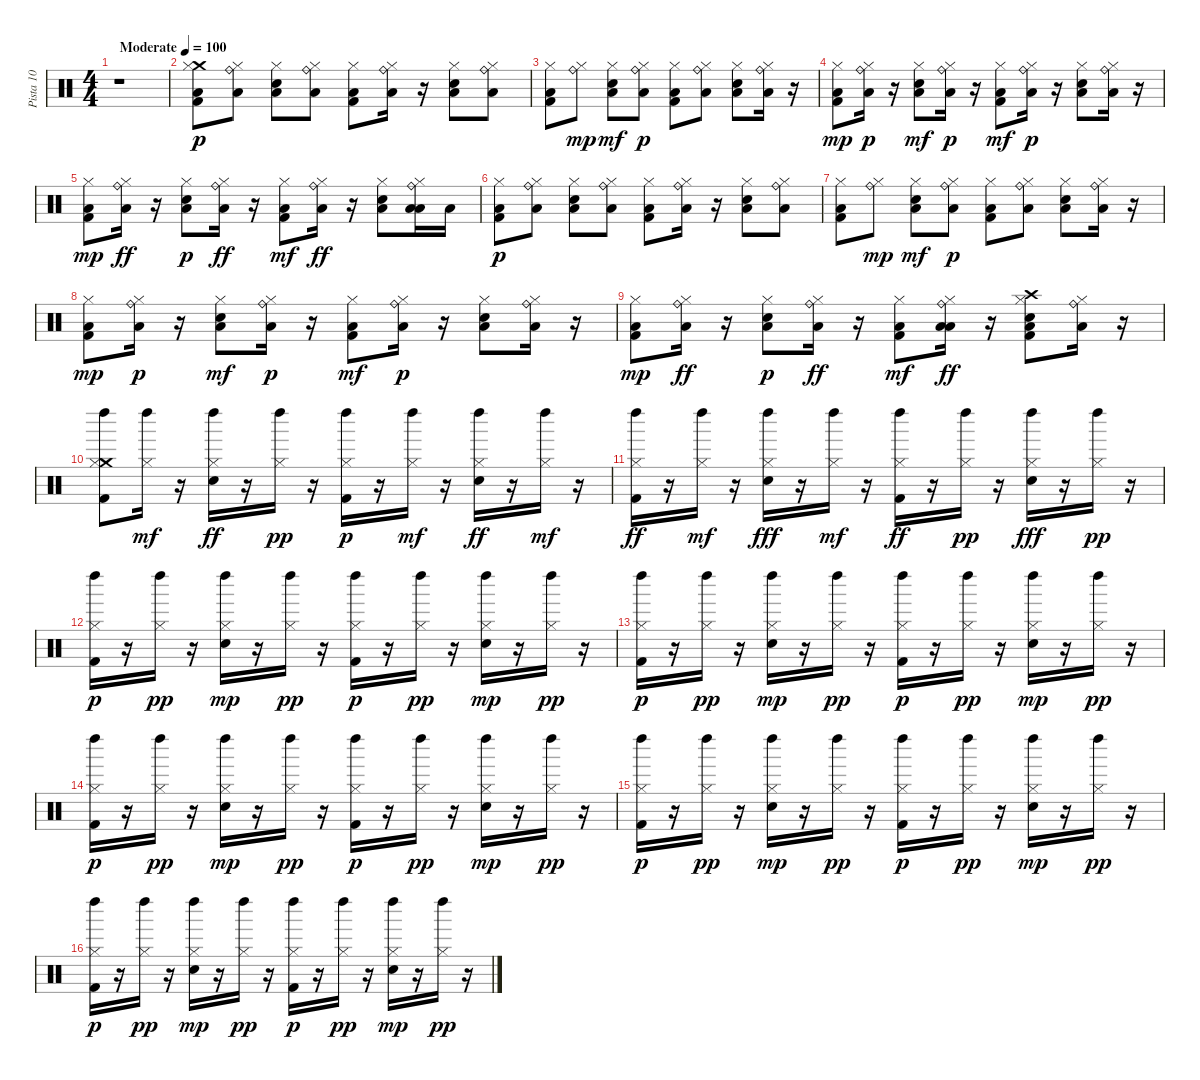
\track ("Pista 10" "Pista 10") {instrument percussion}
\staff {score}
\articulation defaults
\ts (4 4)
\tempo (100 "Moderate")
\clef neutral
\ks c
r.1{dy p} |
("Crash medium (hit)" "Hi-Hat (closed)" "Kick (hit) 2" "Low Floor Tom (hit)").8 ("Ride (bell)" "Low Floor Tom (hit)" "Hi-Hat (closed)").8 ("Hi-Hat (closed)" "Snare (hit) 2" "Low Floor Tom (hit)").8 ("Ride (bell)" "Low Floor Tom (hit)" "Hi-Hat (closed)").8 ("Hi-Hat (closed)" "Kick (hit) 2" "Low Floor Tom (hit)").8 ("Ride (bell)" "Low Floor Tom (hit)" "Hi-Hat (closed)").16 r.16 ("Hi-Hat (closed)" "Snare (hit) 2" "Low Floor Tom (hit)").8 ("Ride (bell)" "Low Floor Tom (hit)" "Hi-Hat (closed)").8 |
("Hi-Hat (closed)" "Kick (hit) 2" "Low Floor Tom (hit)").8 ("Ride (bell)" "Hi-Hat (closed)").8{dy mp} ("Hi-Hat (closed)" "Snare (hit) 2" "Low Floor Tom (hit)").8{dy mf} ("Ride (bell)" "Low Floor Tom (hit)" "Hi-Hat (closed)").8{dy p} ("Hi-Hat (closed)" "Kick (hit) 2" "Low Floor Tom (hit)").8 ("Ride (bell)" "Low Floor Tom (hit)" "Hi-Hat (closed)").8 ("Hi-Hat (closed)" "Snare (hit) 2" "Low Floor Tom (hit)").8 ("Ride (bell)" "Low Floor Tom (hit)" "Hi-Hat (closed)").16 r.16 |
("Hi-Hat (closed)" "Kick (hit) 2" "Low Floor Tom (hit)").8{dy mp} ("Ride (bell)" "Low Floor Tom (hit)" "Hi-Hat (closed)").16{dy p} r.16 ("Hi-Hat (closed)" "Snare (hit) 2" "Low Floor Tom (hit)").8{dy mf} ("Ride (bell)" "Low Floor Tom (hit)" "Hi-Hat (closed)").16{dy p} r.16 ("Hi-Hat (closed)" "Kick (hit) 2" "Low Floor Tom (hit)").8{dy mf} ("Ride (bell)" "Low Floor Tom (hit)" "Hi-Hat (closed)").16{dy p} r.16 ("Hi-Hat (closed)" "Snare (hit) 2" "Low Floor Tom (hit)").8 ("Ride (bell)" "Low Floor Tom (hit)" "Hi-Hat (closed)").16 r.16 |
("Hi-Hat (closed)" "Kick (hit) 2" "Low Floor Tom (hit)").8{dy mp} ("Ride (bell)" "Low Floor Tom (hit)" "Hi-Hat (closed)").16{dy ff} r.16 ("Hi-Hat (closed)" "Snare (hit) 2" "Low Floor Tom (hit)").8{dy p} ("Ride (bell)" "Low Floor Tom (hit)" "Hi-Hat (closed)").16{dy ff} r.16 ("Hi-Hat (closed)" "Kick (hit) 2" "Low Floor Tom (hit)").8{dy mf} ("Ride (bell)" "Low Floor Tom (hit)" "Hi-Hat (closed)").16{dy ff} r.16 ("Hi-Hat (closed)" "Snare (hit) 2" "Low Floor Tom (hit)").8 ("Low Tom (hit)" "Ride (bell)" "Low Floor Tom (hit)" "Hi-Hat (closed)").16 "Low Tom (hit)".16 |
("Hi-Hat (closed)" "Kick (hit) 2" "Low Floor Tom (hit)").8{dy p} ("Ride (bell)" "Low Floor Tom (hit)" "Hi-Hat (closed)").8 ("Hi-Hat (closed)" "Snare (hit) 2" "Low Floor Tom (hit)").8 ("Ride (bell)" "Low Floor Tom (hit)" "Hi-Hat (closed)").8 ("Hi-Hat (closed)" "Kick (hit) 2" "Low Floor Tom (hit)").8 ("Ride (bell)" "Low Floor Tom (hit)" "Hi-Hat (closed)").16 r.16 ("Hi-Hat (closed)" "Snare (hit) 2" "Low Floor Tom (hit)").8 ("Ride (bell)" "Low Floor Tom (hit)" "Hi-Hat (closed)").8 |
("Hi-Hat (closed)" "Kick (hit) 2" "Low Floor Tom (hit)").8 ("Ride (bell)" "Hi-Hat (closed)").8{dy mp} ("Hi-Hat (closed)" "Snare (hit) 2" "Low Floor Tom (hit)").8{dy mf} ("Ride (bell)" "Low Floor Tom (hit)" "Hi-Hat (closed)").8{dy p} ("Hi-Hat (closed)" "Kick (hit) 2" "Low Floor Tom (hit)").8 ("Ride (bell)" "Low Floor Tom (hit)" "Hi-Hat (closed)").8 ("Hi-Hat (closed)" "Snare (hit) 2" "Low Floor Tom (hit)").8 ("Ride (bell)" "Low Floor Tom (hit)" "Hi-Hat (closed)").16 r.16 |
("Hi-Hat (closed)" "Kick (hit) 2" "Low Floor Tom (hit)").8{dy mp} ("Ride (bell)" "Low Floor Tom (hit)" "Hi-Hat (closed)").16{dy p} r.16 ("Hi-Hat (closed)" "Snare (hit) 2" "Low Floor Tom (hit)").8{dy mf} ("Ride (bell)" "Low Floor Tom (hit)" "Hi-Hat (closed)").16{dy p} r.16 ("Hi-Hat (closed)" "Kick (hit) 2" "Low Floor Tom (hit)").8{dy mf} ("Ride (bell)" "Low Floor Tom (hit)" "Hi-Hat (closed)").16{dy p} r.16 ("Hi-Hat (closed)" "Snare (hit) 2" "Low Floor Tom (hit)").8 ("Ride (bell)" "Low Floor Tom (hit)" "Hi-Hat (closed)").16 r.16 |
("Hi-Hat (closed)" "Kick (hit) 2" "Low Floor Tom (hit)").8{dy mp} ("Ride (bell)" "Low Floor Tom (hit)" "Hi-Hat (closed)").16{dy ff} r.16 ("Hi-Hat (closed)" "Snare (hit) 2" "Low Floor Tom (hit)").8{dy p} ("Ride (bell)" "Low Floor Tom (hit)" "Hi-Hat (closed)").16{dy ff} r.16 ("Hi-Hat (closed)" "Kick (hit) 2" "Low Floor Tom (hit)").8{dy mf} ("Low Tom (hit)" "Ride (bell)" "Low Floor Tom (hit)" "Hi-Hat (closed)").16{dy ff} r.16 ("Kick (hit) 2" "Crash high (hit)" "Hi-Hat (closed)" "Snare (hit) 2" "Low Floor Tom (hit)").8 ("Ride (bell)" "Low Floor Tom (hit)" "Hi-Hat (closed)").16 r.16 |
("Crash medium (hit)" "Kick (hit) 2" "Left Maraca (hit)" "Hi-Hat (closed)").8 ("Left Maraca (hit)" "Hi-Hat (closed)").16{dy mf} r.16 ("Snare (hit) 2" "Left Maraca (hit)" "Hi-Hat (closed)").16{dy ff} r.16 ("Left Maraca (hit)" "Hi-Hat (closed)").16{dy pp} r.16 ("Kick (hit) 2" "Left Maraca (hit)" "Hi-Hat (closed)").16{dy p} r.16 ("Left Maraca (hit)" "Hi-Hat (closed)").16{dy mf} r.16 ("Snare (hit) 2" "Left Maraca (hit)" "Hi-Hat (closed)").16{dy ff} r.16 ("Left Maraca (hit)" "Hi-Hat (closed)").16{dy mf} r.16 |
("Kick (hit) 2" "Left Maraca (hit)" "Hi-Hat (closed)").16{dy ff} r.16 ("Left Maraca (hit)" "Hi-Hat (closed)").16{dy mf} r.16 ("Snare (hit) 2" "Left Maraca (hit)" "Hi-Hat (closed)").16{dy fff} r.16 ("Left Maraca (hit)" "Hi-Hat (closed)").16{dy mf} r.16 ("Kick (hit) 2" "Left Maraca (hit)" "Hi-Hat (closed)").16{dy ff} r.16 ("Left Maraca (hit)" "Hi-Hat (closed)").16{dy pp} r.16 ("Snare (hit) 2" "Left Maraca (hit)" "Hi-Hat (closed)").16{dy fff} r.16 ("Hi-Hat (closed)" "Left Maraca (hit)").16{dy pp} r.16 |
("Kick (hit) 2" "Hi-Hat (closed)" "Left Maraca (hit)").16{dy p} r.16 ("Hi-Hat (closed)" "Left Maraca (hit)").16{dy pp} r.16 ("Snare (hit) 2" "Hi-Hat (closed)" "Left Maraca (hit)").16{dy mp} r.16 ("Hi-Hat (closed)" "Left Maraca (hit)").16{dy pp} r.16 ("Kick (hit) 2" "Hi-Hat (closed)" "Left Maraca (hit)").16{dy p} r.16 ("Hi-Hat (closed)" "Left Maraca (hit)").16{dy pp} r.16 ("Snare (hit) 2" "Hi-Hat (closed)" "Left Maraca (hit)").16{dy mp} r.16 ("Hi-Hat (closed)" "Left Maraca (hit)").16{dy pp} r.16 |
("Kick (hit) 2" "Hi-Hat (closed)" "Left Maraca (hit)").16{dy p} r.16 ("Hi-Hat (closed)" "Left Maraca (hit)").16{dy pp} r.16 ("Snare (hit) 2" "Hi-Hat (closed)" "Left Maraca (hit)").16{dy mp} r.16 ("Hi-Hat (closed)" "Left Maraca (hit)").16{dy pp} r.16 ("Kick (hit) 2" "Hi-Hat (closed)" "Left Maraca (hit)").16{dy p} r.16 ("Hi-Hat (closed)" "Left Maraca (hit)").16{dy pp} r.16 ("Snare (hit) 2" "Hi-Hat (closed)" "Left Maraca (hit)").16{dy mp} r.16 ("Hi-Hat (closed)" "Left Maraca (hit)").16{dy pp} r.16 |
("Kick (hit) 2" "Hi-Hat (closed)" "Left Maraca (hit)").16{dy p} r.16 ("Hi-Hat (closed)" "Left Maraca (hit)").16{dy pp} r.16 ("Snare (hit) 2" "Hi-Hat (closed)" "Left Maraca (hit)").16{dy mp} r.16 ("Hi-Hat (closed)" "Left Maraca (hit)").16{dy pp} r.16 ("Kick (hit) 2" "Hi-Hat (closed)" "Left Maraca (hit)").16{dy p} r.16 ("Hi-Hat (closed)" "Left Maraca (hit)").16{dy pp} r.16 ("Snare (hit) 2" "Hi-Hat (closed)" "Left Maraca (hit)").16{dy mp} r.16 ("Hi-Hat (closed)" "Left Maraca (hit)").16{dy pp} r.16 |
("Kick (hit) 2" "Hi-Hat (closed)" "Left Maraca (hit)").16{dy p} r.16 ("Hi-Hat (closed)" "Left Maraca (hit)").16{dy pp} r.16 ("Snare (hit) 2" "Hi-Hat (closed)" "Left Maraca (hit)").16{dy mp} r.16 ("Hi-Hat (closed)" "Left Maraca (hit)").16{dy pp} r.16 ("Kick (hit) 2" "Hi-Hat (closed)" "Left Maraca (hit)").16{dy p} r.16 ("Hi-Hat (closed)" "Left Maraca (hit)").16{dy pp} r.16 ("Snare (hit) 2" "Hi-Hat (closed)" "Left Maraca (hit)").16{dy mp} r.16 ("Hi-Hat (closed)" "Left Maraca (hit)").16{dy pp} r.16 |
("Kick (hit) 2" "Hi-Hat (closed)" "Left Maraca (hit)").16{dy p} r.16 ("Hi-Hat (closed)" "Left Maraca (hit)").16{dy pp} r.16 ("Snare (hit) 2" "Hi-Hat (closed)" "Left Maraca (hit)").16{dy mp} r.16 ("Hi-Hat (closed)" "Left Maraca (hit)").16{dy pp} r.16 ("Kick (hit) 2" "Hi-Hat (closed)" "Left Maraca (hit)").16{dy p} r.16 ("Hi-Hat (closed)" "Left Maraca (hit)").16{dy pp} r.16 ("Snare (hit) 2" "Hi-Hat (closed)" "Left Maraca (hit)").16{dy mp} r.16 ("Hi-Hat (closed)" "Left Maraca (hit)").16{dy pp} r.16
